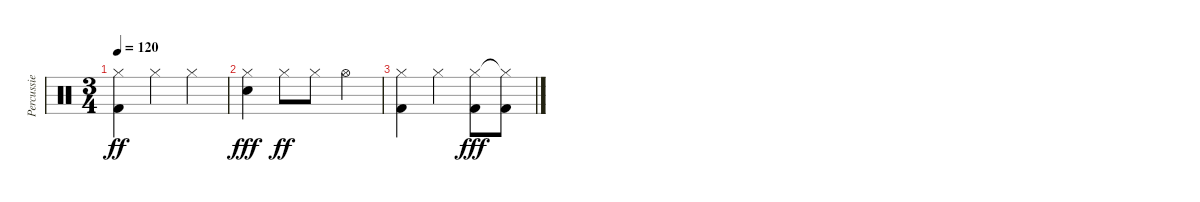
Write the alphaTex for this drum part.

\track ("Percussie" "Percussie") {instrument percussion}
\staff {score}
\articulation defaults
\ts (3 4)
\tempo 120
\clef neutral
\ks c
("Hi-Hat (closed)" "Kick (hit) 2").4{dy ff} "Hi-Hat (closed)".4 "Hi-Hat (closed)".4 |
("Hi-Hat (closed)" "Electric Snare (hit)").4{dy fff} "Hi-Hat (closed)".8{dy ff} "Hi-Hat (closed)".8 "Hi-Hat (open)".4 |
("Hi-Hat (closed)" "Kick (hit) 2").4 "Hi-Hat (closed)".4 ("Hi-Hat (closed)" "Kick (hit) 2").8{dy fff} ("Hi-Hat (closed)"{t} "Kick (hit) 2").8
